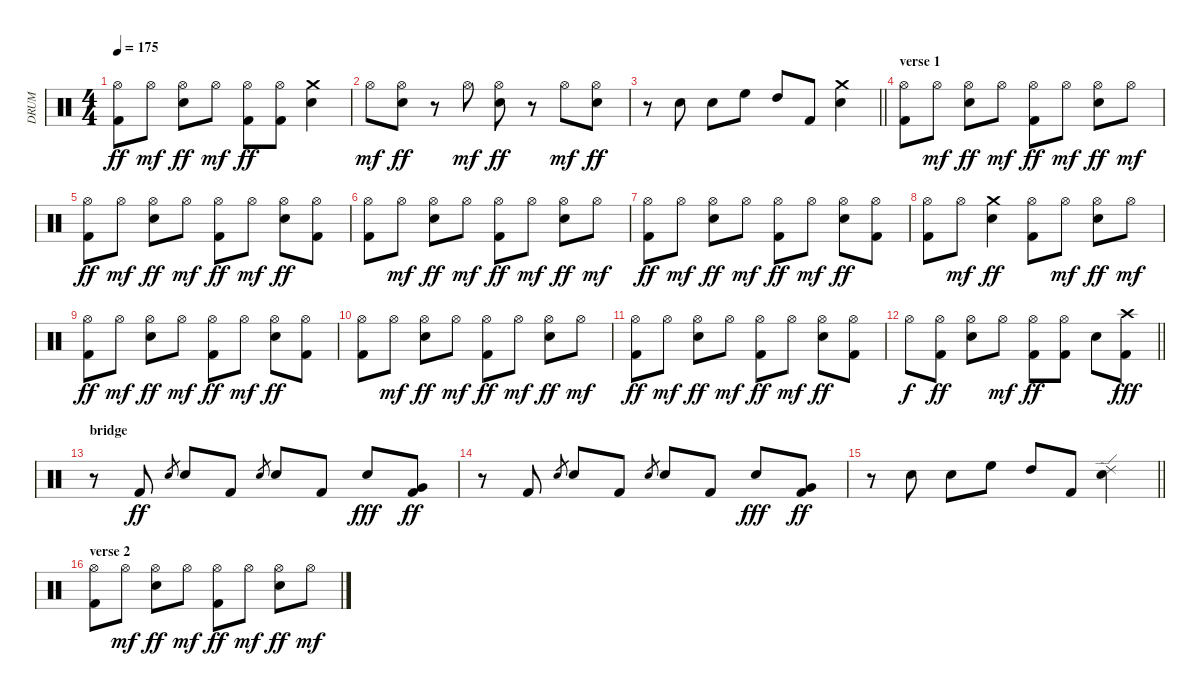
\track ("DRUM" "DRUM") {instrument percussion}
\staff {score}
\articulation defaults
\ts (4 4)
\tempo 175
\clef neutral
\ks c
("Hi-Hat (open)" "Kick (hit) 2").8{dy ff} "Hi-Hat (open)".8{dy mf} ("Hi-Hat (open)" "Snare (hit) 2").8{dy ff} "Hi-Hat (open)".8{dy mf} ("Hi-Hat (open)" "Kick (hit) 2").8{dy ff} ("Hi-Hat (open)" "Kick (hit) 2").8 ("Crash medium (hit)" "Snare (hit) 2").4 |
"Hi-Hat (open)".8{dy mf} ("Hi-Hat (open)" "Snare (hit) 2").8{dy ff} r.8 "Hi-Hat (open)".8{dy mf} ("Hi-Hat (open)" "Snare (hit) 2").8{dy ff} r.8 "Hi-Hat (open)".8{dy mf} ("Hi-Hat (open)" "Snare (hit) 2").8{dy ff} |
\barLineRight lightlight
r.8 "Electric Snare (hit)".8 "Snare (hit) 2".8 "High Floor Tom (hit)".8 "High Tom (hit)".8 "Kick (hit) 2".8 ("Crash medium (hit)" "Snare (hit) 2").4 |
\section ("" "verse 1")
("Hi-Hat (open)" "Kick (hit) 2").8 "Hi-Hat (open)".8{dy mf} ("Hi-Hat (open)" "Snare (hit) 2").8{dy ff} "Hi-Hat (open)".8{dy mf} ("Hi-Hat (open)" "Kick (hit) 2").8{dy ff} "Hi-Hat (open)".8{dy mf} ("Hi-Hat (open)" "Snare (hit) 2").8{dy ff} "Hi-Hat (open)".8{dy mf} |
("Hi-Hat (open)" "Kick (hit) 2").8{dy ff} "Hi-Hat (open)".8{dy mf} ("Hi-Hat (open)" "Snare (hit) 2").8{dy ff} "Hi-Hat (open)".8{dy mf} ("Hi-Hat (open)" "Kick (hit) 2").8{dy ff} "Hi-Hat (open)".8{dy mf} ("Hi-Hat (open)" "Snare (hit) 2").8{dy ff} ("Hi-Hat (open)" "Kick (hit) 2").8 |
("Hi-Hat (open)" "Kick (hit) 2").8 "Hi-Hat (open)".8{dy mf} ("Hi-Hat (open)" "Snare (hit) 2").8{dy ff} "Hi-Hat (open)".8{dy mf} ("Hi-Hat (open)" "Kick (hit) 2").8{dy ff} "Hi-Hat (open)".8{dy mf} ("Hi-Hat (open)" "Snare (hit) 2").8{dy ff} "Hi-Hat (open)".8{dy mf} |
("Hi-Hat (open)" "Kick (hit) 2").8{dy ff} "Hi-Hat (open)".8{dy mf} ("Hi-Hat (open)" "Snare (hit) 2").8{dy ff} "Hi-Hat (open)".8{dy mf} ("Hi-Hat (open)" "Kick (hit) 2").8{dy ff} "Hi-Hat (open)".8{dy mf} ("Hi-Hat (open)" "Snare (hit) 2").8{dy ff} ("Hi-Hat (open)" "Kick (hit) 2").8 |
("Hi-Hat (open)" "Kick (hit) 2").8 "Hi-Hat (open)".8{dy mf} ("Crash medium (hit)" "Snare (hit) 2").4{dy ff} ("Hi-Hat (open)" "Kick (hit) 2").8 "Hi-Hat (open)".8{dy mf} ("Hi-Hat (open)" "Snare (hit) 2").8{dy ff} "Hi-Hat (open)".8{dy mf} |
("Hi-Hat (open)" "Kick (hit) 2").8{dy ff} "Hi-Hat (open)".8{dy mf} ("Hi-Hat (open)" "Snare (hit) 2").8{dy ff} "Hi-Hat (open)".8{dy mf} ("Hi-Hat (open)" "Kick (hit) 2").8{dy ff} "Hi-Hat (open)".8{dy mf} ("Hi-Hat (open)" "Snare (hit) 2").8{dy ff} ("Hi-Hat (open)" "Kick (hit) 2").8 |
("Hi-Hat (open)" "Kick (hit) 2").8 "Hi-Hat (open)".8{dy mf} ("Hi-Hat (open)" "Snare (hit) 2").8{dy ff} "Hi-Hat (open)".8{dy mf} ("Hi-Hat (open)" "Kick (hit) 2").8{dy ff} "Hi-Hat (open)".8{dy mf} ("Hi-Hat (open)" "Snare (hit) 2").8{dy ff} "Hi-Hat (open)".8{dy mf} |
("Hi-Hat (open)" "Kick (hit) 2").8{dy ff} "Hi-Hat (open)".8{dy mf} ("Hi-Hat (open)" "Snare (hit) 2").8{dy ff} "Hi-Hat (open)".8{dy mf} ("Hi-Hat (open)" "Kick (hit) 2").8{dy ff} "Hi-Hat (open)".8{dy mf} ("Hi-Hat (open)" "Snare (hit) 2").8{dy ff} ("Hi-Hat (open)" "Kick (hit) 2").8 |
\barLineRight lightlight "Hi-Hat (open)".8{dy f}
("Hi-Hat (open)" "Kick (hit) 2").8{dy ff} ("Hi-Hat (open)" "Snare (hit) 2").8 "Hi-Hat (open)".8{dy mf} ("Hi-Hat (open)" "Kick (hit) 2").8{dy ff} ("Hi-Hat (open)" "Kick (hit) 2").8 "Snare (hit) 2".8 ("Crash high (hit)" "Kick (hit) 2").8{dy fff} |
\section ("" "bridge")
r.8 "Kick (hit) 2".8{dy ff} "Electric Snare (hit)".8{gr} "Snare (hit) 2".8 "Kick (hit) 2".8 "Electric Snare (hit)".8{gr} "Snare (hit) 2".8 "Kick (hit) 2".8 "Snare (hit) 2".8{dy fff} ("Very Low Tom (hit)" "Kick (hit) 2").8{dy ff} |
r.8 "Kick (hit) 2".8 "Electric Snare (hit)".8{gr} "Snare (hit) 2".8 "Kick (hit) 2".8 "Electric Snare (hit)".8{gr} "Snare (hit) 2".8 "Kick (hit) 2".8 "Snare (hit) 2".8{dy fff} ("Very Low Tom (hit)" "Kick (hit) 2").8{dy ff} |
\barLineRight lightlight
r.8 "Electric Snare (hit)".8 "Snare (hit) 2".8 "High Floor Tom (hit)".8 "High Tom (hit)".8 "Kick (hit) 2".8 ("Ride (edge) 2" "Snare (hit) 2").4 |
\section ("" "verse 2")
("Hi-Hat (open)" "Kick (hit) 2").8 "Hi-Hat (open)".8{dy mf} ("Hi-Hat (open)" "Snare (hit) 2").8{dy ff} "Hi-Hat (open)".8{dy mf} ("Hi-Hat (open)" "Kick (hit) 2").8{dy ff} "Hi-Hat (open)".8{dy mf} ("Hi-Hat (open)" "Snare (hit) 2").8{dy ff} "Hi-Hat (open)".8{dy mf}
